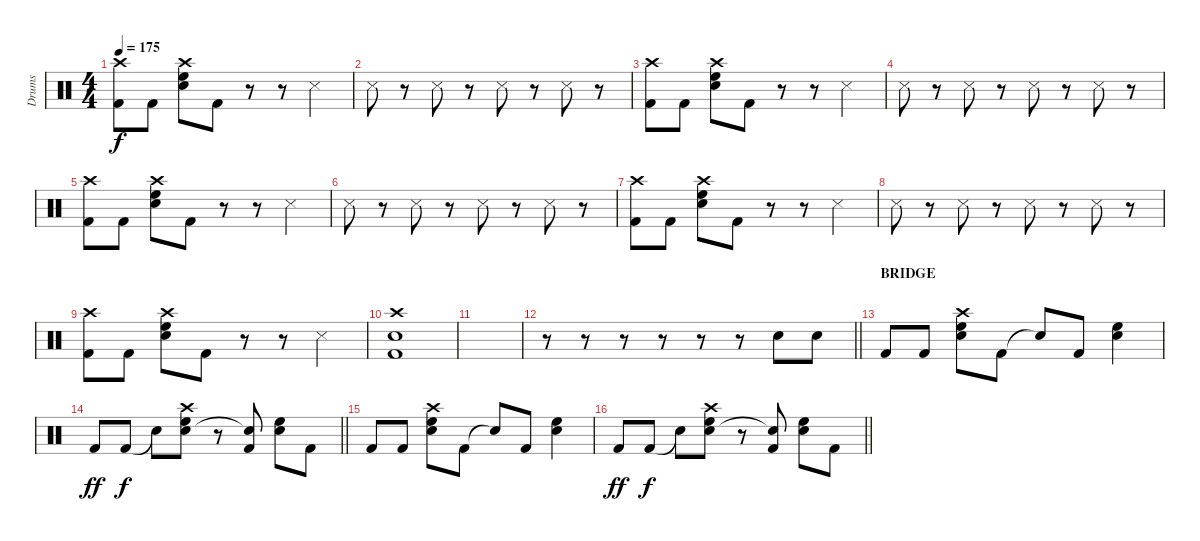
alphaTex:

\track ("Drums" "Drums") {instrument percussion}
\staff {score}
\articulation defaults
\ts (4 4)
\tempo 175
\clef neutral
\ks c
("Kick (hit) 2" "Crash high (hit)").8{dy f} "Kick (hit) 2".8 ("High Floor Tom (hit)" "Electric Snare (hit)" "Crash high (hit)").8 "Kick (hit) 2".8 r.8 r.8 "Metronome (hit)".4 |
"Metronome (hit)".8 r.8 "Metronome (hit)".8 r.8 "Metronome (hit)".8 r.8 "Metronome (hit)".8 r.8 |
("Kick (hit) 2" "Crash high (hit)").8 "Kick (hit) 2".8 ("High Floor Tom (hit)" "Electric Snare (hit)" "Crash high (hit)").8 "Kick (hit) 2".8 r.8 r.8 "Metronome (hit)".4 |
"Metronome (hit)".8 r.8 "Metronome (hit)".8 r.8 "Metronome (hit)".8 r.8 "Metronome (hit)".8 r.8 |
("Kick (hit) 2" "Crash high (hit)").8 "Kick (hit) 2".8 ("High Floor Tom (hit)" "Electric Snare (hit)" "Crash high (hit)").8 "Kick (hit) 2".8 r.8 r.8 "Metronome (hit)".4 |
"Metronome (hit)".8 r.8 "Metronome (hit)".8 r.8 "Metronome (hit)".8 r.8 "Metronome (hit)".8 r.8 |
("Kick (hit) 2" "Crash high (hit)").8 "Kick (hit) 2".8 ("High Floor Tom (hit)" "Electric Snare (hit)" "Crash high (hit)").8 "Kick (hit) 2".8 r.8 r.8 "Metronome (hit)".4 |
"Metronome (hit)".8 r.8 "Metronome (hit)".8 r.8 "Metronome (hit)".8 r.8 "Metronome (hit)".8 r.8 |
("Kick (hit) 2" "Crash high (hit)").8 "Kick (hit) 2".8 ("High Floor Tom (hit)" "Electric Snare (hit)" "Crash high (hit)").8 "Kick (hit) 2".8 r.8 r.8 "Metronome (hit)".4 |
("Crash high (hit)" "Kick (hit) 2" "Electric Snare (hit)").1 |
|
\barLineRight lightlight
r.8 r.8 r.8 r.8 r.8 r.8 "Electric Snare (hit)".8 "Electric Snare (hit)".8 |
\section ("" "BRIDGE")
"Kick (hit) 2".8 "Kick (hit) 2".8 ("High Floor Tom (hit)" "Electric Snare (hit)" "Crash high (hit)").8 "Kick (hit) 2".8 "Snare (hit)"{t}.8 "Kick (hit) 2".8 ("High Floor Tom (hit)" "Electric Snare (hit)").4 |
\barLineRight lightlight "Kick (hit) 2".8{dy ff} "Kick (hit) 2".8{dy f} "Snare (hit)"{t}.8
("High Floor Tom (hit)" "Electric Snare (hit)" "Crash high (hit)").8 r.8 ("Kick (hit) 2" "Snare (hit)"{t}).8 ("High Floor Tom (hit)" "Electric Snare (hit)").8 "Kick (hit) 2".8 |
"Kick (hit) 2".8 "Kick (hit) 2".8 ("High Floor Tom (hit)" "Electric Snare (hit)" "Crash high (hit)").8 "Kick (hit) 2".8 "Snare (hit)"{t}.8 "Kick (hit) 2".8 ("High Floor Tom (hit)" "Electric Snare (hit)").4 |
\barLineRight lightlight "Kick (hit) 2".8{dy ff} "Kick (hit) 2".8{dy f} "Snare (hit)"{t}.8
("High Floor Tom (hit)" "Electric Snare (hit)" "Crash high (hit)").8 r.8 ("Kick (hit) 2" "Snare (hit)"{t}).8 ("High Floor Tom (hit)" "Electric Snare (hit)").8 "Kick (hit) 2".8
